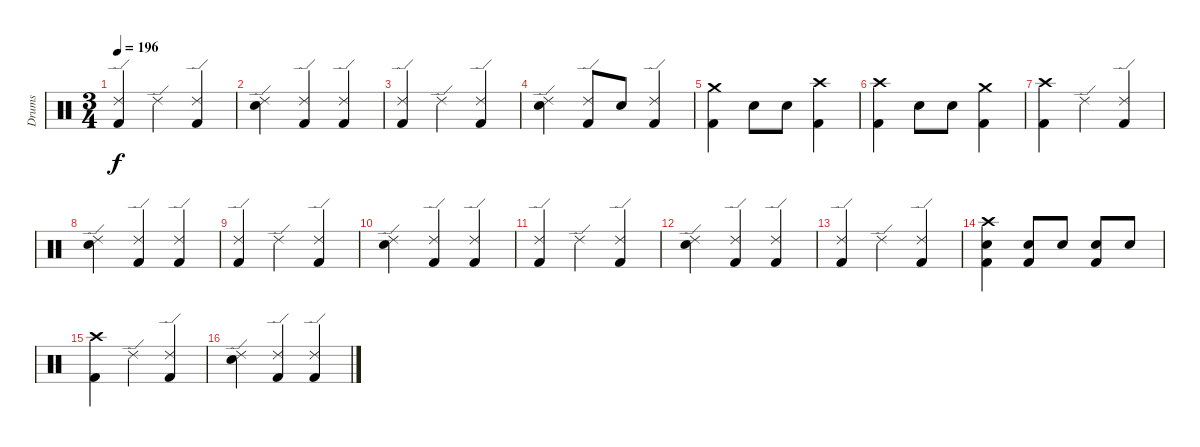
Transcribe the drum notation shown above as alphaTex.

\track ("Drums" "Drums") {instrument percussion}
\staff {score}
\articulation defaults
\ts (3 4)
\tempo 196
\clef neutral
\ks c
("Ride (edge) 2" "Kick (hit) 2").4{dy f} "Ride (edge) 2".4 ("Ride (edge) 2" "Kick (hit) 2").4 |
("Ride (edge) 2" "Electric Snare (hit)").4 ("Ride (edge) 2" "Kick (hit) 2").4 ("Ride (edge) 2" "Kick (hit) 2").4 |
("Ride (edge) 2" "Kick (hit) 2").4 "Ride (edge) 2".4 ("Ride (edge) 2" "Kick (hit) 2").4 |
("Ride (edge) 2" "Electric Snare (hit)").4 ("Ride (edge) 2" "Kick (hit) 2").8 "Electric Snare (hit)".8 ("Ride (edge) 2" "Kick (hit) 2").4 |
("Crash medium (hit)" "Kick (hit) 2").4 "Electric Snare (hit)".8 "Electric Snare (hit)".8 ("Crash high (hit)" "Kick (hit) 2").4 |
("Crash high (hit)" "Kick (hit) 2").4 "Electric Snare (hit)".8 "Electric Snare (hit)".8 ("Crash medium (hit)" "Kick (hit) 2").4 |
("Crash high (hit)" "Kick (hit) 2").4 "Ride (edge) 2".4 ("Ride (edge) 2" "Kick (hit) 2").4 |
("Ride (edge) 2" "Electric Snare (hit)").4 ("Ride (edge) 2" "Kick (hit) 2").4 ("Ride (edge) 2" "Kick (hit) 2").4 |
("Ride (edge) 2" "Kick (hit) 2").4 "Ride (edge) 2".4 ("Ride (edge) 2" "Kick (hit) 2").4 |
("Ride (edge) 2" "Electric Snare (hit)").4 ("Ride (edge) 2" "Kick (hit) 2").4 ("Ride (edge) 2" "Kick (hit) 2").4 |
("Ride (edge) 2" "Kick (hit) 2").4 "Ride (edge) 2".4 ("Ride (edge) 2" "Kick (hit) 2").4 |
("Ride (edge) 2" "Electric Snare (hit)").4 ("Ride (edge) 2" "Kick (hit) 2").4 ("Ride (edge) 2" "Kick (hit) 2").4 |
("Ride (edge) 2" "Kick (hit) 2").4 "Ride (edge) 2".4 ("Ride (edge) 2" "Kick (hit) 2").4 |
("Crash high (hit)" "Electric Snare (hit)" "Kick (hit) 2").4 ("Electric Snare (hit)" "Kick (hit) 2").8 "Electric Snare (hit)".8 ("Electric Snare (hit)" "Kick (hit) 2").8 "Electric Snare (hit)".8 |
("Crash high (hit)" "Kick (hit) 2").4 "Ride (edge) 2".4 ("Ride (edge) 2" "Kick (hit) 2").4 |
("Ride (edge) 2" "Electric Snare (hit)").4 ("Ride (edge) 2" "Kick (hit) 2").4 ("Ride (edge) 2" "Kick (hit) 2").4
